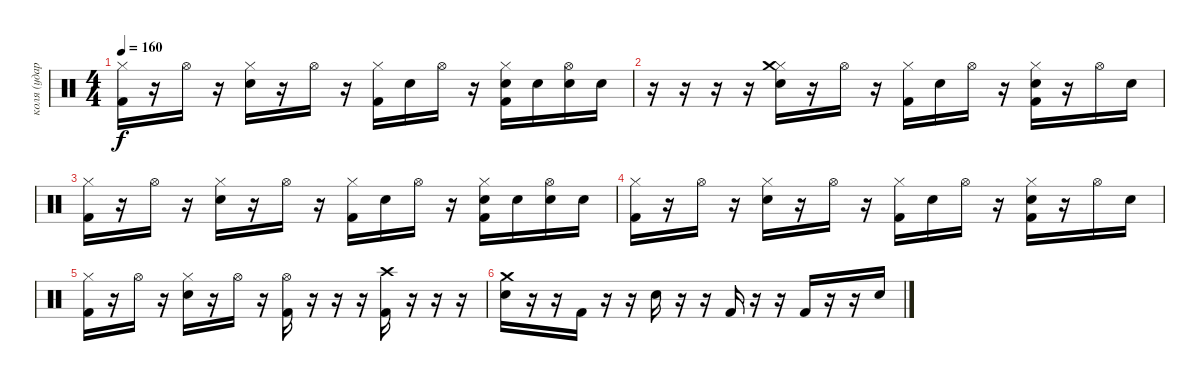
\track ("коля (ударные)" "коля (удар") {instrument percussion}
\staff {score}
\articulation defaults
\ts (4 4)
\tempo 160
\clef neutral
\ks c
("Kick (hit) 2" "Hi-Hat (closed)").16{dy f} r.16 "Hi-Hat (open)".16 r.16 ("Snare (hit) 2" "Hi-Hat (closed)").16 r.16 "Hi-Hat (open)".16 r.16 ("Kick (hit) 2" "Hi-Hat (closed)").16 "Snare (hit) 2".16 "Hi-Hat (open)".16 r.16 ("Snare (hit) 2" "Kick (hit) 2" "Hi-Hat (closed)").16 "Snare (hit) 2".16 ("Snare (hit) 2" "Hi-Hat (open)").16 "Snare (hit) 2".16 |
r.16 r.16 r.16 r.16 ("Snare (hit) 2" "Hi-Hat (closed)" "Crash medium (hit)").16 r.16 "Hi-Hat (open)".16 r.16 ("Kick (hit) 2" "Hi-Hat (closed)").16 "Snare (hit) 2".16 "Hi-Hat (open)".16 r.16 ("Snare (hit) 2" "Kick (hit) 2" "Hi-Hat (closed)").16 r.16 "Hi-Hat (open)".16 "Snare (hit) 2".16 |
("Kick (hit) 2" "Hi-Hat (closed)").16 r.16 "Hi-Hat (open)".16 r.16 ("Snare (hit) 2" "Hi-Hat (closed)").16 r.16 "Hi-Hat (open)".16 r.16 ("Kick (hit) 2" "Hi-Hat (closed)").16 "Snare (hit) 2".16 "Hi-Hat (open)".16 r.16 ("Snare (hit) 2" "Kick (hit) 2" "Hi-Hat (closed)").16 "Snare (hit) 2".16 ("Snare (hit) 2" "Hi-Hat (open)").16 "Snare (hit) 2".16 |
("Kick (hit) 2" "Hi-Hat (closed)").16 r.16 "Hi-Hat (open)".16 r.16 ("Snare (hit) 2" "Hi-Hat (closed)").16 r.16 "Hi-Hat (open)".16 r.16 ("Kick (hit) 2" "Hi-Hat (closed)").16 "Snare (hit) 2".16 "Hi-Hat (open)".16 r.16 ("Snare (hit) 2" "Kick (hit) 2" "Hi-Hat (closed)").16 r.16 "Hi-Hat (open)".16 "Snare (hit) 2".16 |
("Kick (hit) 2" "Hi-Hat (closed)").16 r.16 "Hi-Hat (open)".16 r.16 ("Snare (hit) 2" "Hi-Hat (closed)").16 r.16 "Hi-Hat (open)".16 r.16 ("Kick (hit) 2" "Hi-Hat (open)").16 r.16 r.16 r.16 ("Kick (hit) 2" "Crash high (hit)").16 r.16 r.16 r.16 |
("Snare (hit) 2" "Crash medium (hit)").16 r.16 r.16 "Kick (hit) 2".16 r.16 r.16 "Snare (hit) 2".16 r.16 r.16 "Kick (hit) 2".16 r.16 r.16 "Kick (hit) 2".16 r.16 r.16 "Snare (hit) 2".16
